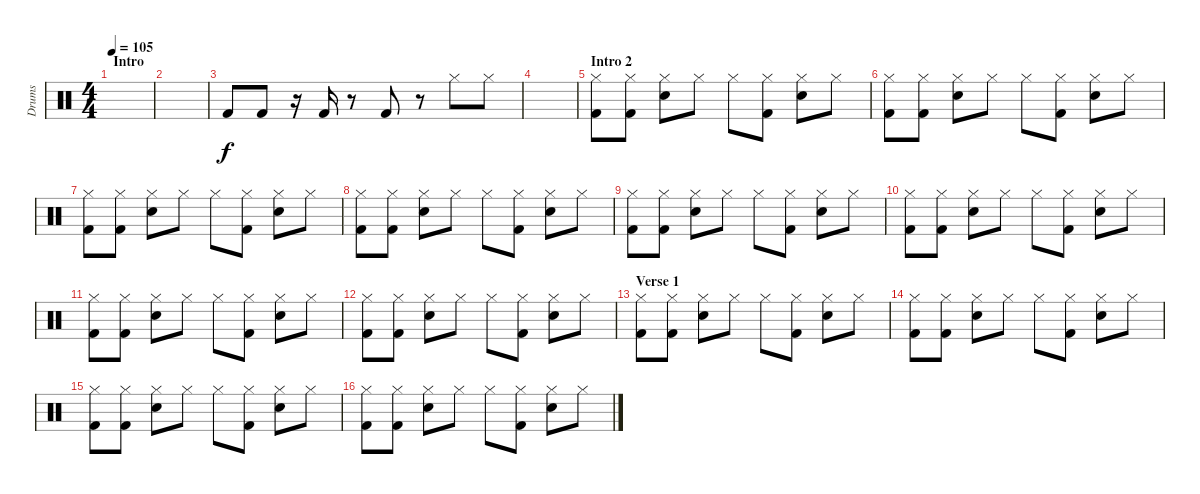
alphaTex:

\track ("Drums" "Drums") {instrument percussion}
\staff {score}
\articulation defaults
\ts (4 4)
\section ("" "Intro")
\tempo 105
\clef neutral
\ks c
|
|
"Kick (hit) 2".8 "Kick (hit) 2".8 r.16 "Kick (hit) 2".16 r.8 "Kick (hit) 2".8 r.8 "Hi-Hat (closed)".8 "Hi-Hat (closed)".8 |
|
\section ("" "Intro 2")
("Hi-Hat (closed)" "Kick (hit) 2").8 ("Hi-Hat (closed)" "Kick (hit) 2").8 ("Hi-Hat (closed)" "Snare (hit) 2").8 "Hi-Hat (closed)".8 "Hi-Hat (closed)".8 ("Hi-Hat (closed)" "Kick (hit) 2").8 ("Hi-Hat (closed)" "Snare (hit) 2").8 "Hi-Hat (closed)".8 |
("Hi-Hat (closed)" "Kick (hit) 2").8 ("Hi-Hat (closed)" "Kick (hit) 2").8 ("Hi-Hat (closed)" "Snare (hit) 2").8 "Hi-Hat (closed)".8 "Hi-Hat (closed)".8 ("Hi-Hat (closed)" "Kick (hit) 2").8 ("Hi-Hat (closed)" "Snare (hit) 2").8 "Hi-Hat (closed)".8 |
("Hi-Hat (closed)" "Kick (hit) 2").8 ("Hi-Hat (closed)" "Kick (hit) 2").8 ("Hi-Hat (closed)" "Snare (hit) 2").8 "Hi-Hat (closed)".8 "Hi-Hat (closed)".8 ("Hi-Hat (closed)" "Kick (hit) 2").8 ("Hi-Hat (closed)" "Snare (hit) 2").8 "Hi-Hat (closed)".8 |
("Hi-Hat (closed)" "Kick (hit) 2").8 ("Hi-Hat (closed)" "Kick (hit) 2").8 ("Hi-Hat (closed)" "Snare (hit) 2").8 "Hi-Hat (closed)".8 "Hi-Hat (closed)".8 ("Hi-Hat (closed)" "Kick (hit) 2").8 ("Hi-Hat (closed)" "Snare (hit) 2").8 "Hi-Hat (closed)".8 |
("Hi-Hat (closed)" "Kick (hit) 2").8 ("Hi-Hat (closed)" "Kick (hit) 2").8 ("Hi-Hat (closed)" "Snare (hit) 2").8 "Hi-Hat (closed)".8 "Hi-Hat (closed)".8 ("Hi-Hat (closed)" "Kick (hit) 2").8 ("Hi-Hat (closed)" "Snare (hit) 2").8 "Hi-Hat (closed)".8 |
("Hi-Hat (closed)" "Kick (hit) 2").8 ("Hi-Hat (closed)" "Kick (hit) 2").8 ("Hi-Hat (closed)" "Snare (hit) 2").8 "Hi-Hat (closed)".8 "Hi-Hat (closed)".8 ("Hi-Hat (closed)" "Kick (hit) 2").8 ("Hi-Hat (closed)" "Snare (hit) 2").8 "Hi-Hat (closed)".8 |
("Hi-Hat (closed)" "Kick (hit) 2").8 ("Hi-Hat (closed)" "Kick (hit) 2").8 ("Hi-Hat (closed)" "Snare (hit) 2").8 "Hi-Hat (closed)".8 "Hi-Hat (closed)".8 ("Hi-Hat (closed)" "Kick (hit) 2").8 ("Hi-Hat (closed)" "Snare (hit) 2").8 "Hi-Hat (closed)".8 |
("Hi-Hat (closed)" "Kick (hit) 2").8 ("Hi-Hat (closed)" "Kick (hit) 2").8 ("Hi-Hat (closed)" "Snare (hit) 2").8 "Hi-Hat (closed)".8 "Hi-Hat (closed)".8 ("Hi-Hat (closed)" "Kick (hit) 2").8 ("Hi-Hat (closed)" "Snare (hit) 2").8 "Hi-Hat (closed)".8 |
\section ("" "Verse 1")
("Hi-Hat (closed)" "Kick (hit) 2").8 ("Hi-Hat (closed)" "Kick (hit) 2").8 ("Hi-Hat (closed)" "Snare (hit) 2").8 "Hi-Hat (closed)".8 "Hi-Hat (closed)".8 ("Hi-Hat (closed)" "Kick (hit) 2").8 ("Hi-Hat (closed)" "Snare (hit) 2").8 "Hi-Hat (closed)".8 |
("Hi-Hat (closed)" "Kick (hit) 2").8 ("Hi-Hat (closed)" "Kick (hit) 2").8 ("Hi-Hat (closed)" "Snare (hit) 2").8 "Hi-Hat (closed)".8 "Hi-Hat (closed)".8 ("Hi-Hat (closed)" "Kick (hit) 2").8 ("Hi-Hat (closed)" "Snare (hit) 2").8 "Hi-Hat (closed)".8 |
("Hi-Hat (closed)" "Kick (hit) 2").8 ("Hi-Hat (closed)" "Kick (hit) 2").8 ("Hi-Hat (closed)" "Snare (hit) 2").8 "Hi-Hat (closed)".8 "Hi-Hat (closed)".8 ("Hi-Hat (closed)" "Kick (hit) 2").8 ("Hi-Hat (closed)" "Snare (hit) 2").8 "Hi-Hat (closed)".8 |
("Hi-Hat (closed)" "Kick (hit) 2").8 ("Hi-Hat (closed)" "Kick (hit) 2").8 ("Hi-Hat (closed)" "Snare (hit) 2").8 "Hi-Hat (closed)".8 "Hi-Hat (closed)".8 ("Hi-Hat (closed)" "Kick (hit) 2").8 ("Hi-Hat (closed)" "Snare (hit) 2").8 "Hi-Hat (closed)".8
